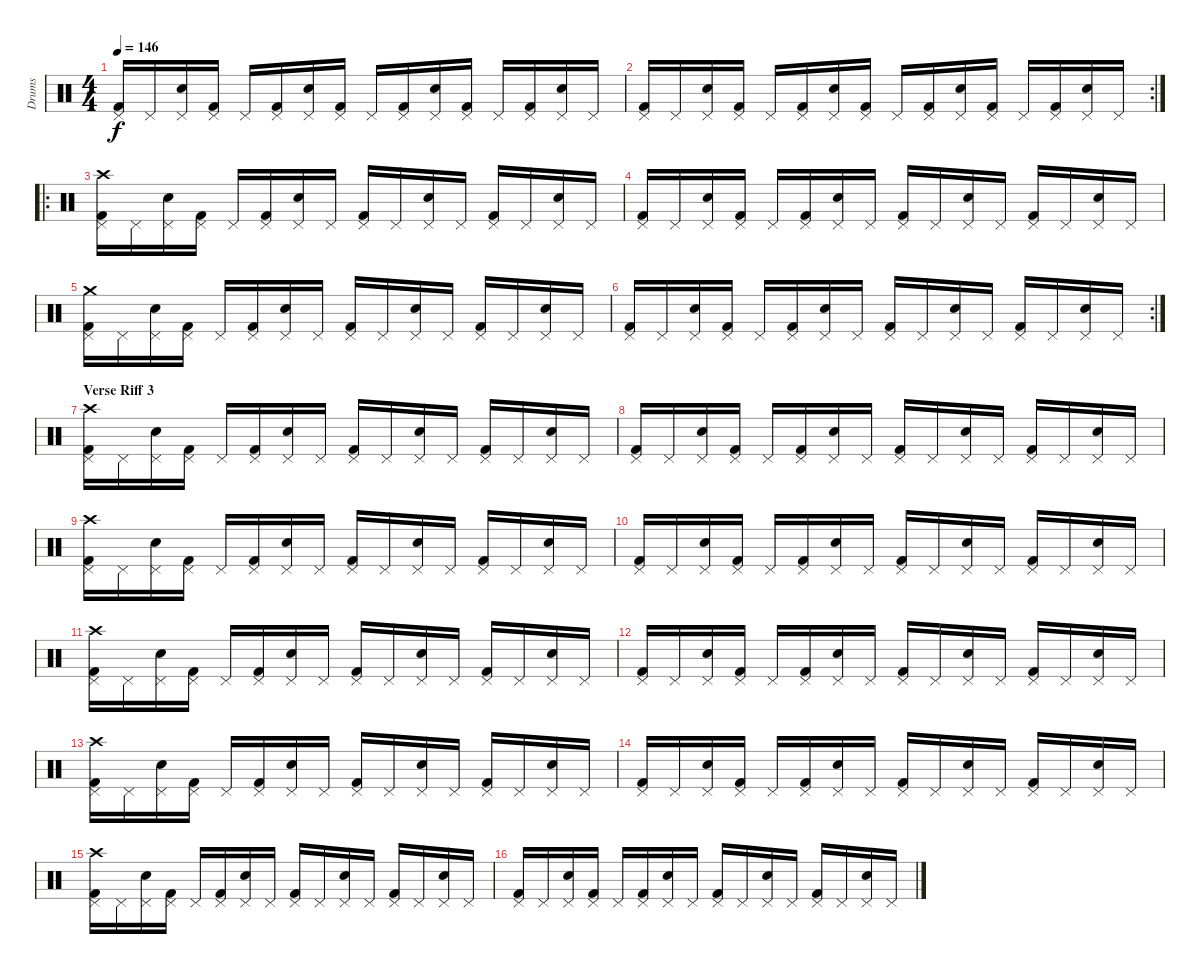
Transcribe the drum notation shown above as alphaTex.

\track ("Drums" "Drums") {instrument percussion}
\staff {score}
\articulation defaults
\ts (4 4)
\tempo 146
\clef neutral
\ks c
("Kick (hit) 2" "Pedal Hi-Hat (hit)").16{dy f} "Pedal Hi-Hat (hit)".16 ("Snare (hit) 2" "Pedal Hi-Hat (hit)").16 ("Kick (hit) 2" "Pedal Hi-Hat (hit)").16 "Pedal Hi-Hat (hit)".16 ("Kick (hit) 2" "Pedal Hi-Hat (hit)").16 ("Snare (hit) 2" "Pedal Hi-Hat (hit)").16 ("Kick (hit) 2" "Pedal Hi-Hat (hit)").16 "Pedal Hi-Hat (hit)".16 ("Kick (hit) 2" "Pedal Hi-Hat (hit)").16 ("Snare (hit) 2" "Pedal Hi-Hat (hit)").16 ("Kick (hit) 2" "Pedal Hi-Hat (hit)").16 "Pedal Hi-Hat (hit)".16 ("Kick (hit) 2" "Pedal Hi-Hat (hit)").16 ("Snare (hit) 2" "Pedal Hi-Hat (hit)").16 "Pedal Hi-Hat (hit)".16 |
\rc 2
("Kick (hit) 2" "Pedal Hi-Hat (hit)").16 "Pedal Hi-Hat (hit)".16 ("Snare (hit) 2" "Pedal Hi-Hat (hit)").16 ("Kick (hit) 2" "Pedal Hi-Hat (hit)").16 "Pedal Hi-Hat (hit)".16 ("Kick (hit) 2" "Pedal Hi-Hat (hit)").16 ("Snare (hit) 2" "Pedal Hi-Hat (hit)").16 ("Kick (hit) 2" "Pedal Hi-Hat (hit)").16 "Pedal Hi-Hat (hit)".16 ("Kick (hit) 2" "Pedal Hi-Hat (hit)").16 ("Snare (hit) 2" "Pedal Hi-Hat (hit)").16 ("Kick (hit) 2" "Pedal Hi-Hat (hit)").16 "Pedal Hi-Hat (hit)".16 ("Kick (hit) 2" "Pedal Hi-Hat (hit)").16 ("Snare (hit) 2" "Pedal Hi-Hat (hit)").16 "Pedal Hi-Hat (hit)".16 |
\ro
("Kick (hit) 2" "Pedal Hi-Hat (hit)" "Crash high (hit)").16 "Pedal Hi-Hat (hit)".16 ("Snare (hit) 2" "Pedal Hi-Hat (hit)").16 ("Kick (hit) 2" "Pedal Hi-Hat (hit)").16 "Pedal Hi-Hat (hit)".16 ("Kick (hit) 2" "Pedal Hi-Hat (hit)").16 ("Snare (hit) 2" "Pedal Hi-Hat (hit)").16 "Pedal Hi-Hat (hit)".16 ("Kick (hit) 2" "Pedal Hi-Hat (hit)").16 "Pedal Hi-Hat (hit)".16 ("Snare (hit) 2" "Pedal Hi-Hat (hit)").16 "Pedal Hi-Hat (hit)".16 ("Kick (hit) 2" "Pedal Hi-Hat (hit)").16 "Pedal Hi-Hat (hit)".16 ("Snare (hit) 2" "Pedal Hi-Hat (hit)").16 "Pedal Hi-Hat (hit)".16 |
("Kick (hit) 2" "Pedal Hi-Hat (hit)").16 "Pedal Hi-Hat (hit)".16 ("Snare (hit) 2" "Pedal Hi-Hat (hit)").16 ("Kick (hit) 2" "Pedal Hi-Hat (hit)").16 "Pedal Hi-Hat (hit)".16 ("Kick (hit) 2" "Pedal Hi-Hat (hit)").16 ("Snare (hit) 2" "Pedal Hi-Hat (hit)").16 "Pedal Hi-Hat (hit)".16 ("Kick (hit) 2" "Pedal Hi-Hat (hit)").16 "Pedal Hi-Hat (hit)".16 ("Snare (hit) 2" "Pedal Hi-Hat (hit)").16 "Pedal Hi-Hat (hit)".16 ("Kick (hit) 2" "Pedal Hi-Hat (hit)").16 "Pedal Hi-Hat (hit)".16 ("Snare (hit) 2" "Pedal Hi-Hat (hit)").16 "Pedal Hi-Hat (hit)".16 |
("Kick (hit) 2" "Pedal Hi-Hat (hit)" "Crash medium (hit)").16 "Pedal Hi-Hat (hit)".16 ("Snare (hit) 2" "Pedal Hi-Hat (hit)").16 ("Kick (hit) 2" "Pedal Hi-Hat (hit)").16 "Pedal Hi-Hat (hit)".16 ("Kick (hit) 2" "Pedal Hi-Hat (hit)").16 ("Snare (hit) 2" "Pedal Hi-Hat (hit)").16 "Pedal Hi-Hat (hit)".16 ("Kick (hit) 2" "Pedal Hi-Hat (hit)").16 "Pedal Hi-Hat (hit)".16 ("Snare (hit) 2" "Pedal Hi-Hat (hit)").16 "Pedal Hi-Hat (hit)".16 ("Kick (hit) 2" "Pedal Hi-Hat (hit)").16 "Pedal Hi-Hat (hit)".16 ("Snare (hit) 2" "Pedal Hi-Hat (hit)").16 "Pedal Hi-Hat (hit)".16 |
\rc 2
("Kick (hit) 2" "Pedal Hi-Hat (hit)").16 "Pedal Hi-Hat (hit)".16 ("Snare (hit) 2" "Pedal Hi-Hat (hit)").16 ("Kick (hit) 2" "Pedal Hi-Hat (hit)").16 "Pedal Hi-Hat (hit)".16 ("Kick (hit) 2" "Pedal Hi-Hat (hit)").16 ("Snare (hit) 2" "Pedal Hi-Hat (hit)").16 "Pedal Hi-Hat (hit)".16 ("Kick (hit) 2" "Pedal Hi-Hat (hit)").16 "Pedal Hi-Hat (hit)".16 ("Snare (hit) 2" "Pedal Hi-Hat (hit)").16 "Pedal Hi-Hat (hit)".16 ("Kick (hit) 2" "Pedal Hi-Hat (hit)").16 "Pedal Hi-Hat (hit)".16 ("Snare (hit) 2" "Pedal Hi-Hat (hit)").16 "Pedal Hi-Hat (hit)".16 |
\section ("" "Verse Riff 3")
("Kick (hit) 2" "Pedal Hi-Hat (hit)" "Crash high (hit)").16 "Pedal Hi-Hat (hit)".16 ("Snare (hit) 2" "Pedal Hi-Hat (hit)").16 ("Kick (hit) 2" "Pedal Hi-Hat (hit)").16 "Pedal Hi-Hat (hit)".16 ("Kick (hit) 2" "Pedal Hi-Hat (hit)").16 ("Snare (hit) 2" "Pedal Hi-Hat (hit)").16 "Pedal Hi-Hat (hit)".16 ("Kick (hit) 2" "Pedal Hi-Hat (hit)").16 "Pedal Hi-Hat (hit)".16 ("Snare (hit) 2" "Pedal Hi-Hat (hit)").16 "Pedal Hi-Hat (hit)".16 ("Kick (hit) 2" "Pedal Hi-Hat (hit)").16 "Pedal Hi-Hat (hit)".16 ("Snare (hit) 2" "Pedal Hi-Hat (hit)").16 "Pedal Hi-Hat (hit)".16 |
("Kick (hit) 2" "Pedal Hi-Hat (hit)").16 "Pedal Hi-Hat (hit)".16 ("Snare (hit) 2" "Pedal Hi-Hat (hit)").16 ("Kick (hit) 2" "Pedal Hi-Hat (hit)").16 "Pedal Hi-Hat (hit)".16 ("Kick (hit) 2" "Pedal Hi-Hat (hit)").16 ("Snare (hit) 2" "Pedal Hi-Hat (hit)").16 "Pedal Hi-Hat (hit)".16 ("Kick (hit) 2" "Pedal Hi-Hat (hit)").16 "Pedal Hi-Hat (hit)".16 ("Snare (hit) 2" "Pedal Hi-Hat (hit)").16 "Pedal Hi-Hat (hit)".16 ("Kick (hit) 2" "Pedal Hi-Hat (hit)").16 "Pedal Hi-Hat (hit)".16 ("Snare (hit) 2" "Pedal Hi-Hat (hit)").16 "Pedal Hi-Hat (hit)".16 |
("Kick (hit) 2" "Pedal Hi-Hat (hit)" "Crash high (hit)").16 "Pedal Hi-Hat (hit)".16 ("Snare (hit) 2" "Pedal Hi-Hat (hit)").16 ("Kick (hit) 2" "Pedal Hi-Hat (hit)").16 "Pedal Hi-Hat (hit)".16 ("Kick (hit) 2" "Pedal Hi-Hat (hit)").16 ("Snare (hit) 2" "Pedal Hi-Hat (hit)").16 "Pedal Hi-Hat (hit)".16 ("Kick (hit) 2" "Pedal Hi-Hat (hit)").16 "Pedal Hi-Hat (hit)".16 ("Snare (hit) 2" "Pedal Hi-Hat (hit)").16 "Pedal Hi-Hat (hit)".16 ("Kick (hit) 2" "Pedal Hi-Hat (hit)").16 "Pedal Hi-Hat (hit)".16 ("Snare (hit) 2" "Pedal Hi-Hat (hit)").16 "Pedal Hi-Hat (hit)".16 |
("Kick (hit) 2" "Pedal Hi-Hat (hit)").16 "Pedal Hi-Hat (hit)".16 ("Snare (hit) 2" "Pedal Hi-Hat (hit)").16 ("Kick (hit) 2" "Pedal Hi-Hat (hit)").16 "Pedal Hi-Hat (hit)".16 ("Kick (hit) 2" "Pedal Hi-Hat (hit)").16 ("Snare (hit) 2" "Pedal Hi-Hat (hit)").16 "Pedal Hi-Hat (hit)".16 ("Kick (hit) 2" "Pedal Hi-Hat (hit)").16 "Pedal Hi-Hat (hit)".16 ("Snare (hit) 2" "Pedal Hi-Hat (hit)").16 "Pedal Hi-Hat (hit)".16 ("Kick (hit) 2" "Pedal Hi-Hat (hit)").16 "Pedal Hi-Hat (hit)".16 ("Snare (hit) 2" "Pedal Hi-Hat (hit)").16 "Pedal Hi-Hat (hit)".16 |
("Kick (hit) 2" "Pedal Hi-Hat (hit)" "Crash high (hit)").16 "Pedal Hi-Hat (hit)".16 ("Snare (hit) 2" "Pedal Hi-Hat (hit)").16 ("Kick (hit) 2" "Pedal Hi-Hat (hit)").16 "Pedal Hi-Hat (hit)".16 ("Kick (hit) 2" "Pedal Hi-Hat (hit)").16 ("Snare (hit) 2" "Pedal Hi-Hat (hit)").16 "Pedal Hi-Hat (hit)".16 ("Kick (hit) 2" "Pedal Hi-Hat (hit)").16 "Pedal Hi-Hat (hit)".16 ("Snare (hit) 2" "Pedal Hi-Hat (hit)").16 "Pedal Hi-Hat (hit)".16 ("Kick (hit) 2" "Pedal Hi-Hat (hit)").16 "Pedal Hi-Hat (hit)".16 ("Snare (hit) 2" "Pedal Hi-Hat (hit)").16 "Pedal Hi-Hat (hit)".16 |
("Kick (hit) 2" "Pedal Hi-Hat (hit)").16 "Pedal Hi-Hat (hit)".16 ("Snare (hit) 2" "Pedal Hi-Hat (hit)").16 ("Kick (hit) 2" "Pedal Hi-Hat (hit)").16 "Pedal Hi-Hat (hit)".16 ("Kick (hit) 2" "Pedal Hi-Hat (hit)").16 ("Snare (hit) 2" "Pedal Hi-Hat (hit)").16 "Pedal Hi-Hat (hit)".16 ("Kick (hit) 2" "Pedal Hi-Hat (hit)").16 "Pedal Hi-Hat (hit)".16 ("Snare (hit) 2" "Pedal Hi-Hat (hit)").16 "Pedal Hi-Hat (hit)".16 ("Kick (hit) 2" "Pedal Hi-Hat (hit)").16 "Pedal Hi-Hat (hit)".16 ("Snare (hit) 2" "Pedal Hi-Hat (hit)").16 "Pedal Hi-Hat (hit)".16 |
("Kick (hit) 2" "Pedal Hi-Hat (hit)" "Crash high (hit)").16 "Pedal Hi-Hat (hit)".16 ("Snare (hit) 2" "Pedal Hi-Hat (hit)").16 ("Kick (hit) 2" "Pedal Hi-Hat (hit)").16 "Pedal Hi-Hat (hit)".16 ("Kick (hit) 2" "Pedal Hi-Hat (hit)").16 ("Snare (hit) 2" "Pedal Hi-Hat (hit)").16 "Pedal Hi-Hat (hit)".16 ("Kick (hit) 2" "Pedal Hi-Hat (hit)").16 "Pedal Hi-Hat (hit)".16 ("Snare (hit) 2" "Pedal Hi-Hat (hit)").16 "Pedal Hi-Hat (hit)".16 ("Kick (hit) 2" "Pedal Hi-Hat (hit)").16 "Pedal Hi-Hat (hit)".16 ("Snare (hit) 2" "Pedal Hi-Hat (hit)").16 "Pedal Hi-Hat (hit)".16 |
("Kick (hit) 2" "Pedal Hi-Hat (hit)").16 "Pedal Hi-Hat (hit)".16 ("Snare (hit) 2" "Pedal Hi-Hat (hit)").16 ("Kick (hit) 2" "Pedal Hi-Hat (hit)").16 "Pedal Hi-Hat (hit)".16 ("Kick (hit) 2" "Pedal Hi-Hat (hit)").16 ("Snare (hit) 2" "Pedal Hi-Hat (hit)").16 "Pedal Hi-Hat (hit)".16 ("Kick (hit) 2" "Pedal Hi-Hat (hit)").16 "Pedal Hi-Hat (hit)".16 ("Snare (hit) 2" "Pedal Hi-Hat (hit)").16 "Pedal Hi-Hat (hit)".16 ("Kick (hit) 2" "Pedal Hi-Hat (hit)").16 "Pedal Hi-Hat (hit)".16 ("Snare (hit) 2" "Pedal Hi-Hat (hit)").16 "Pedal Hi-Hat (hit)".16 |
("Kick (hit) 2" "Pedal Hi-Hat (hit)" "Crash high (hit)").16 "Pedal Hi-Hat (hit)".16 ("Snare (hit) 2" "Pedal Hi-Hat (hit)").16 ("Kick (hit) 2" "Pedal Hi-Hat (hit)").16 "Pedal Hi-Hat (hit)".16 ("Kick (hit) 2" "Pedal Hi-Hat (hit)").16 ("Snare (hit) 2" "Pedal Hi-Hat (hit)").16 "Pedal Hi-Hat (hit)".16 ("Kick (hit) 2" "Pedal Hi-Hat (hit)").16 "Pedal Hi-Hat (hit)".16 ("Snare (hit) 2" "Pedal Hi-Hat (hit)").16 "Pedal Hi-Hat (hit)".16 ("Kick (hit) 2" "Pedal Hi-Hat (hit)").16 "Pedal Hi-Hat (hit)".16 ("Snare (hit) 2" "Pedal Hi-Hat (hit)").16 "Pedal Hi-Hat (hit)".16 |
("Kick (hit) 2" "Pedal Hi-Hat (hit)").16 "Pedal Hi-Hat (hit)".16 ("Snare (hit) 2" "Pedal Hi-Hat (hit)").16 ("Kick (hit) 2" "Pedal Hi-Hat (hit)").16 "Pedal Hi-Hat (hit)".16 ("Kick (hit) 2" "Pedal Hi-Hat (hit)").16 ("Snare (hit) 2" "Pedal Hi-Hat (hit)").16 "Pedal Hi-Hat (hit)".16 ("Kick (hit) 2" "Pedal Hi-Hat (hit)").16 "Pedal Hi-Hat (hit)".16 ("Snare (hit) 2" "Pedal Hi-Hat (hit)").16 "Pedal Hi-Hat (hit)".16 ("Kick (hit) 2" "Pedal Hi-Hat (hit)").16 "Pedal Hi-Hat (hit)".16 ("Snare (hit) 2" "Pedal Hi-Hat (hit)").16 "Pedal Hi-Hat (hit)".16
